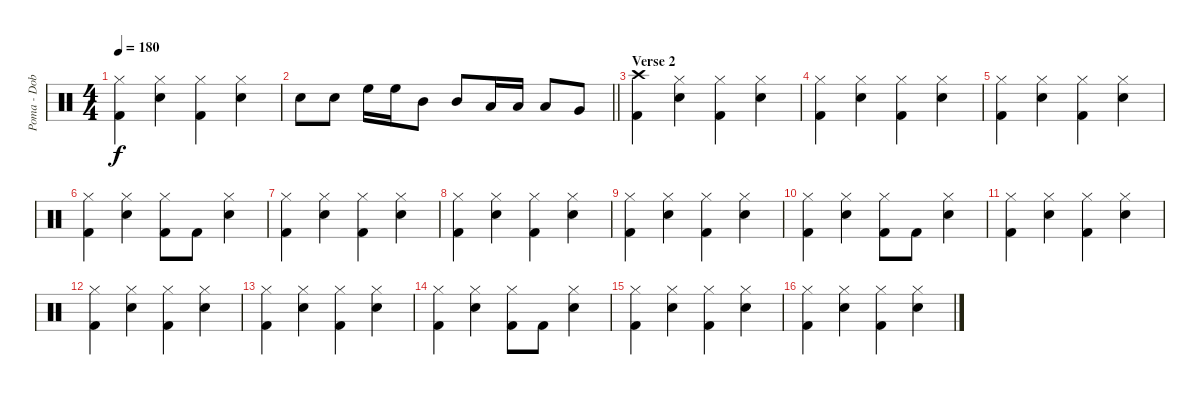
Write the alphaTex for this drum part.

\track ("Poma - Dob" "Poma - Dob") {instrument percussion}
\staff {score}
\articulation defaults
\ts (4 4)
\tempo 180
\clef neutral
\ks c
("Hi-Hat (closed)" "Kick (hit) 2").4{dy f} ("Hi-Hat (closed)" "Electric Snare (hit)").4 ("Hi-Hat (closed)" "Kick (hit) 2").4 ("Hi-Hat (closed)" "Electric Snare (hit)").4 |
\barLineRight lightlight "Electric Snare (hit)".8 "Electric Snare (hit)".8 "High Floor Tom (hit)".16 "High Floor Tom (hit)".16 "Mid Tom (hit)".8 "Mid Tom (hit)".8 "Low Tom (hit)".16 "Low Tom (hit)".16 "Low Tom (hit)".8 "Very Low Tom (hit)".8
|
\section ("" "Verse 2")
("Crash high (hit)" "Kick (hit) 2").4 ("Hi-Hat (closed)" "Electric Snare (hit)").4 ("Hi-Hat (closed)" "Kick (hit) 2").4 ("Hi-Hat (closed)" "Electric Snare (hit)").4 |
("Hi-Hat (closed)" "Kick (hit) 2").4 ("Hi-Hat (closed)" "Electric Snare (hit)").4 ("Hi-Hat (closed)" "Kick (hit) 2").4 ("Hi-Hat (closed)" "Electric Snare (hit)").4 |
("Hi-Hat (closed)" "Kick (hit) 2").4 ("Hi-Hat (closed)" "Electric Snare (hit)").4 ("Hi-Hat (closed)" "Kick (hit) 2").4 ("Hi-Hat (closed)" "Electric Snare (hit)").4 |
("Hi-Hat (closed)" "Kick (hit) 2").4 ("Hi-Hat (closed)" "Electric Snare (hit)").4 ("Hi-Hat (closed)" "Kick (hit) 2").8 "Kick (hit) 2".8 ("Hi-Hat (closed)" "Electric Snare (hit)").4 |
("Hi-Hat (closed)" "Kick (hit) 2").4 ("Hi-Hat (closed)" "Electric Snare (hit)").4 ("Hi-Hat (closed)" "Kick (hit) 2").4 ("Hi-Hat (closed)" "Electric Snare (hit)").4 |
("Hi-Hat (closed)" "Kick (hit) 2").4 ("Hi-Hat (closed)" "Electric Snare (hit)").4 ("Hi-Hat (closed)" "Kick (hit) 2").4 ("Hi-Hat (closed)" "Electric Snare (hit)").4 |
("Hi-Hat (closed)" "Kick (hit) 2").4 ("Hi-Hat (closed)" "Electric Snare (hit)").4 ("Hi-Hat (closed)" "Kick (hit) 2").4 ("Hi-Hat (closed)" "Electric Snare (hit)").4 |
("Hi-Hat (closed)" "Kick (hit) 2").4 ("Hi-Hat (closed)" "Electric Snare (hit)").4 ("Hi-Hat (closed)" "Kick (hit) 2").8 "Kick (hit) 2".8 ("Hi-Hat (closed)" "Electric Snare (hit)").4 |
("Hi-Hat (closed)" "Kick (hit) 2").4 ("Hi-Hat (closed)" "Electric Snare (hit)").4 ("Hi-Hat (closed)" "Kick (hit) 2").4 ("Hi-Hat (closed)" "Electric Snare (hit)").4 |
("Hi-Hat (closed)" "Kick (hit) 2").4 ("Hi-Hat (closed)" "Electric Snare (hit)").4 ("Hi-Hat (closed)" "Kick (hit) 2").4 ("Hi-Hat (closed)" "Electric Snare (hit)").4 |
("Hi-Hat (closed)" "Kick (hit) 2").4 ("Hi-Hat (closed)" "Electric Snare (hit)").4 ("Hi-Hat (closed)" "Kick (hit) 2").4 ("Hi-Hat (closed)" "Electric Snare (hit)").4 |
("Hi-Hat (closed)" "Kick (hit) 2").4 ("Hi-Hat (closed)" "Electric Snare (hit)").4 ("Hi-Hat (closed)" "Kick (hit) 2").8 "Kick (hit) 2".8 ("Hi-Hat (closed)" "Electric Snare (hit)").4 |
("Hi-Hat (closed)" "Kick (hit) 2").4 ("Hi-Hat (closed)" "Electric Snare (hit)").4 ("Hi-Hat (closed)" "Kick (hit) 2").4 ("Hi-Hat (closed)" "Electric Snare (hit)").4 |
("Hi-Hat (closed)" "Kick (hit) 2").4 ("Hi-Hat (closed)" "Electric Snare (hit)").4 ("Hi-Hat (closed)" "Kick (hit) 2").4 ("Hi-Hat (closed)" "Electric Snare (hit)").4
